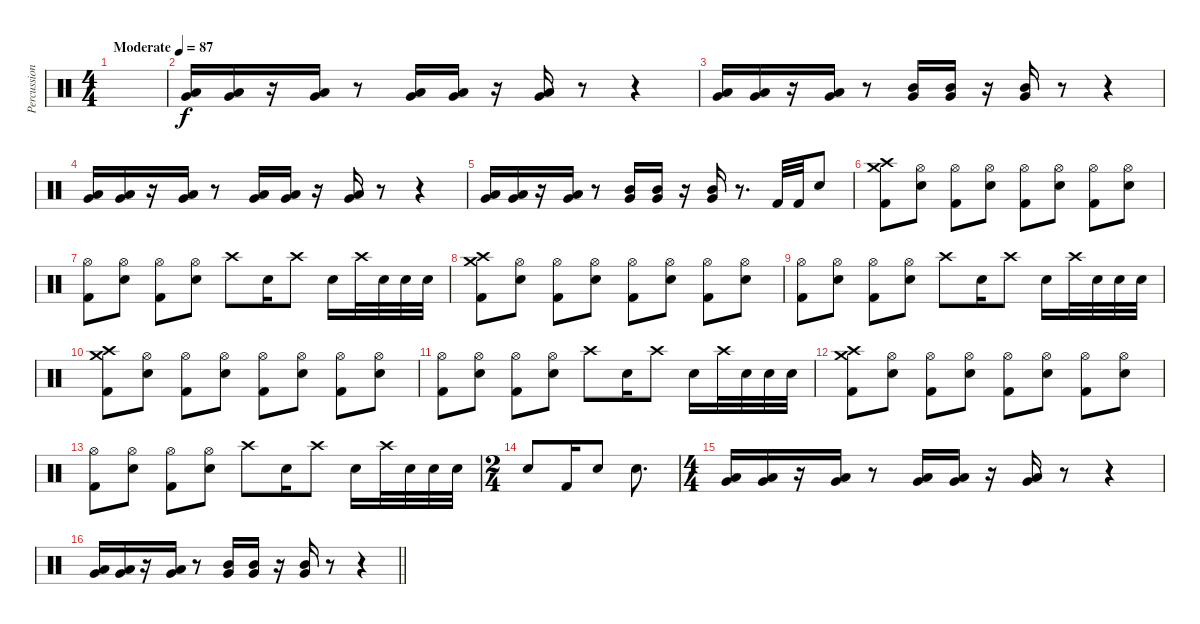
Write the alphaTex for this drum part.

\track ("Percussion" "Percussion") {instrument percussion}
\staff {score}
\articulation defaults
\ts (4 4)
\tempo (87 "Moderate")
\clef neutral
\ks c
|
("Very Low Tom (hit)" "Low Tom (hit)").16 ("Very Low Tom (hit)" "Low Tom (hit)").16 r.16 ("Very Low Tom (hit)" "Low Tom (hit)").16 r.8 ("Very Low Tom (hit)" "Low Tom (hit)").16 ("Very Low Tom (hit)" "Low Tom (hit)").16 r.16 ("Very Low Tom (hit)" "Low Tom (hit)").16 r.8 r.4 |
("Very Low Tom (hit)" "Low Tom (hit)").16 ("Very Low Tom (hit)" "Low Tom (hit)").16 r.16 ("Very Low Tom (hit)" "Low Tom (hit)").16 r.8 ("Very Low Tom (hit)" "Mid Tom (hit)").16 ("Very Low Tom (hit)" "Mid Tom (hit)").16 r.16 ("Very Low Tom (hit)" "Mid Tom (hit)").16 r.8 r.4 |
("Very Low Tom (hit)" "Low Tom (hit)").16 ("Very Low Tom (hit)" "Low Tom (hit)").16 r.16 ("Very Low Tom (hit)" "Low Tom (hit)").16 r.8 ("Very Low Tom (hit)" "Low Tom (hit)").16 ("Very Low Tom (hit)" "Low Tom (hit)").16 r.16 ("Very Low Tom (hit)" "Low Tom (hit)").16 r.8 r.4 |
("Very Low Tom (hit)" "Low Tom (hit)").16 ("Very Low Tom (hit)" "Low Tom (hit)").16 r.16 ("Very Low Tom (hit)" "Low Tom (hit)").16 r.8 ("Very Low Tom (hit)" "Mid Tom (hit)").16 ("Very Low Tom (hit)" "Mid Tom (hit)").16 r.16 ("Very Low Tom (hit)" "Mid Tom (hit)").16 r.8{d} "Kick (hit) 2".32 "Kick (hit) 2".32 "Electric Snare (hit)".8 |
("Kick (hit) 2" "Crash high (hit)" "Crash medium (hit)").8 ("Electric Snare (hit)" "Hi-Hat (open)").8 ("Kick (hit) 2" "Hi-Hat (open)").8 ("Electric Snare (hit)" "Hi-Hat (open)").8 ("Kick (hit) 2" "Hi-Hat (open)").8 ("Electric Snare (hit)" "Hi-Hat (open)").8 ("Kick (hit) 2" "Hi-Hat (open)").8 ("Electric Snare (hit)" "Hi-Hat (open)").8 |
("Kick (hit) 2" "Hi-Hat (open)").8 ("Electric Snare (hit)" "Hi-Hat (open)").8 ("Kick (hit) 2" "Hi-Hat (open)").8 ("Electric Snare (hit)" "Hi-Hat (open)").8 "Crash high (hit)".8 "Electric Snare (hit)".16 "Crash high (hit)".8 "Electric Snare (hit)".16 "Crash high (hit)".32 "Electric Snare (hit)".32 "Electric Snare (hit)".32 "Electric Snare (hit)".32 |
("Kick (hit) 2" "Crash high (hit)" "Crash medium (hit)").8 ("Electric Snare (hit)" "Hi-Hat (open)").8 ("Kick (hit) 2" "Hi-Hat (open)").8 ("Electric Snare (hit)" "Hi-Hat (open)").8 ("Kick (hit) 2" "Hi-Hat (open)").8 ("Electric Snare (hit)" "Hi-Hat (open)").8 ("Kick (hit) 2" "Hi-Hat (open)").8 ("Electric Snare (hit)" "Hi-Hat (open)").8 |
("Kick (hit) 2" "Hi-Hat (open)").8 ("Electric Snare (hit)" "Hi-Hat (open)").8 ("Kick (hit) 2" "Hi-Hat (open)").8 ("Electric Snare (hit)" "Hi-Hat (open)").8 "Crash high (hit)".8 "Electric Snare (hit)".16 "Crash high (hit)".8 "Electric Snare (hit)".16 "Crash high (hit)".32 "Electric Snare (hit)".32 "Electric Snare (hit)".32 "Electric Snare (hit)".32 |
("Kick (hit) 2" "Crash high (hit)" "Crash medium (hit)").8 ("Electric Snare (hit)" "Hi-Hat (open)").8 ("Kick (hit) 2" "Hi-Hat (open)").8 ("Electric Snare (hit)" "Hi-Hat (open)").8 ("Kick (hit) 2" "Hi-Hat (open)").8 ("Electric Snare (hit)" "Hi-Hat (open)").8 ("Kick (hit) 2" "Hi-Hat (open)").8 ("Electric Snare (hit)" "Hi-Hat (open)").8 |
("Kick (hit) 2" "Hi-Hat (open)").8 ("Electric Snare (hit)" "Hi-Hat (open)").8 ("Kick (hit) 2" "Hi-Hat (open)").8 ("Electric Snare (hit)" "Hi-Hat (open)").8 "Crash high (hit)".8 "Electric Snare (hit)".16 "Crash high (hit)".8 "Electric Snare (hit)".16 "Crash high (hit)".32 "Electric Snare (hit)".32 "Electric Snare (hit)".32 "Electric Snare (hit)".32 |
("Kick (hit) 2" "Crash high (hit)" "Crash medium (hit)").8 ("Electric Snare (hit)" "Hi-Hat (open)").8 ("Kick (hit) 2" "Hi-Hat (open)").8 ("Electric Snare (hit)" "Hi-Hat (open)").8 ("Kick (hit) 2" "Hi-Hat (open)").8 ("Electric Snare (hit)" "Hi-Hat (open)").8 ("Kick (hit) 2" "Hi-Hat (open)").8 ("Electric Snare (hit)" "Hi-Hat (open)").8 |
("Kick (hit) 2" "Hi-Hat (open)").8 ("Electric Snare (hit)" "Hi-Hat (open)").8 ("Kick (hit) 2" "Hi-Hat (open)").8 ("Electric Snare (hit)" "Hi-Hat (open)").8 "Crash high (hit)".8 "Electric Snare (hit)".16 "Crash high (hit)".8 "Electric Snare (hit)".16 "Crash high (hit)".32 "Electric Snare (hit)".32 "Electric Snare (hit)".32 "Electric Snare (hit)".32 |
\ts (2 4)
"Electric Snare (hit)".8 "Kick (hit) 2".16 "Electric Snare (hit)".8 "Electric Snare (hit)".8{d} |
\ts (4 4)
("Very Low Tom (hit)" "Low Tom (hit)").16 ("Very Low Tom (hit)" "Low Tom (hit)").16 r.16 ("Very Low Tom (hit)" "Low Tom (hit)").16 r.8 ("Very Low Tom (hit)" "Low Tom (hit)").16 ("Very Low Tom (hit)" "Low Tom (hit)").16 r.16 ("Very Low Tom (hit)" "Low Tom (hit)").16 r.8 r.4 |
\barLineRight lightlight
("Very Low Tom (hit)" "Low Tom (hit)").16 ("Very Low Tom (hit)" "Low Tom (hit)").16 r.16 ("Very Low Tom (hit)" "Low Tom (hit)").16 r.8 ("Very Low Tom (hit)" "Mid Tom (hit)").16 ("Very Low Tom (hit)" "Mid Tom (hit)").16 r.16 ("Very Low Tom (hit)" "Mid Tom (hit)").16 r.8 r.4
